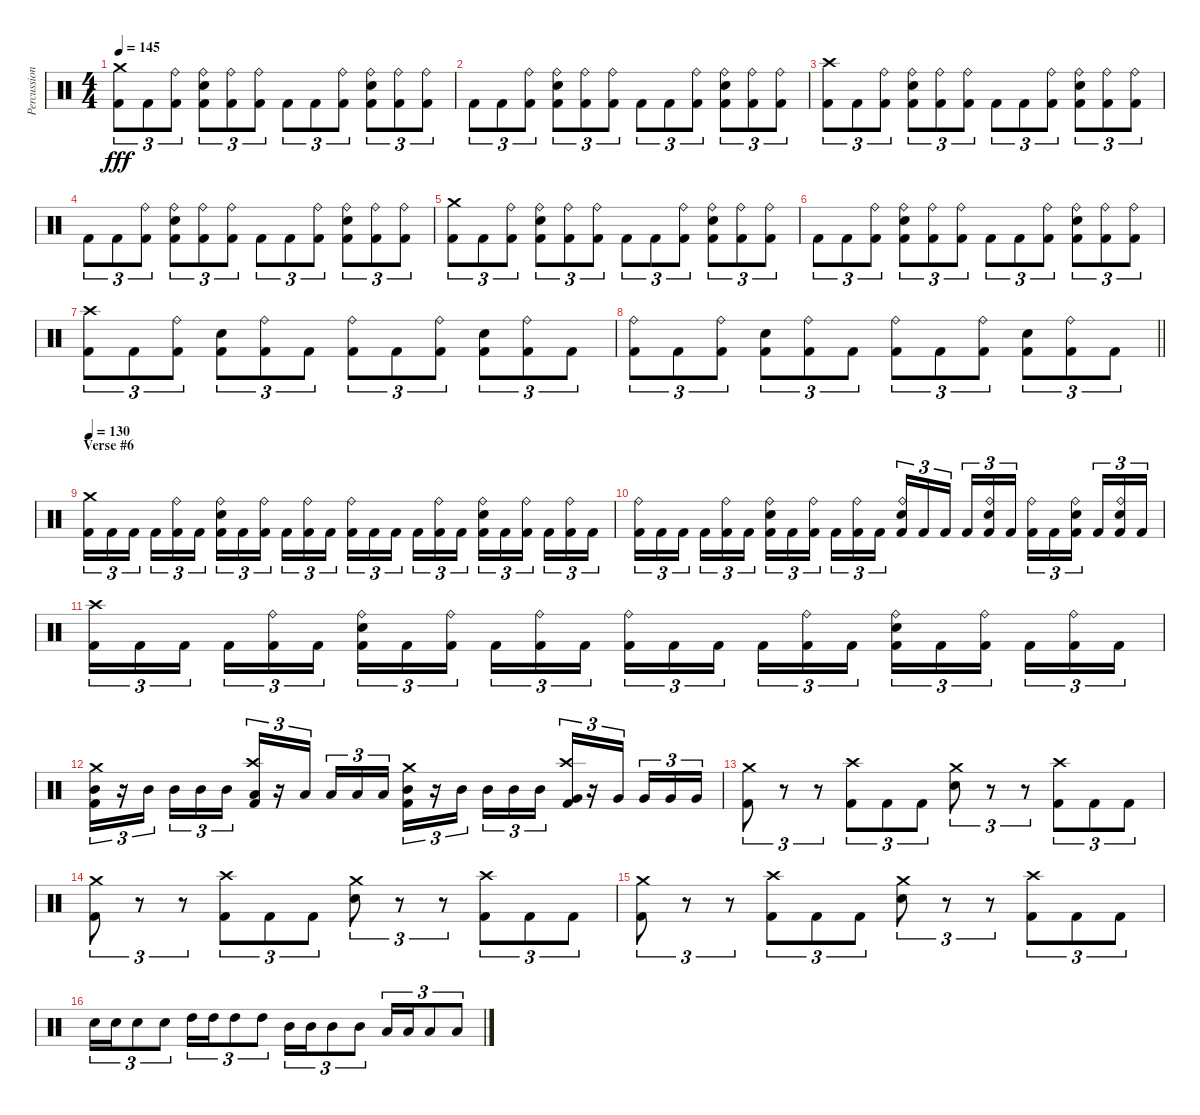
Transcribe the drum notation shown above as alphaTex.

\track ("Percussions" "Percussion") {instrument percussion}
\staff {score}
\articulation defaults
\ts (4 4)
\tempo 145
\clef neutral
\ks c
("Crash medium (hit)" "Kick (hit) 2").8{tu (3 2) dy fff} "Kick (hit) 2".8{tu (3 2)} ("Ride (bell)" "Kick (hit) 2").8{tu (3 2)} ("Ride (bell)" "Snare (hit) 2" "Kick (hit) 2").8{tu (3 2)} ("Ride (bell)" "Kick (hit) 2").8{tu (3 2)} ("Ride (bell)" "Kick (hit) 2").8{tu (3 2)} "Kick (hit) 2".8{tu (3 2)} "Kick (hit) 2".8{tu (3 2)} ("Ride (bell)" "Kick (hit) 2").8{tu (3 2)} ("Ride (bell)" "Snare (hit) 2" "Kick (hit) 2").8{tu (3 2)} ("Ride (bell)" "Kick (hit) 2").8{tu (3 2)} ("Ride (bell)" "Kick (hit) 2").8{tu (3 2)} |
"Kick (hit) 2".8{tu (3 2)} "Kick (hit) 2".8{tu (3 2)} ("Ride (bell)" "Kick (hit) 2").8{tu (3 2)} ("Ride (bell)" "Snare (hit) 2" "Kick (hit) 2").8{tu (3 2)} ("Ride (bell)" "Kick (hit) 2").8{tu (3 2)} ("Ride (bell)" "Kick (hit) 2").8{tu (3 2)} "Kick (hit) 2".8{tu (3 2)} "Kick (hit) 2".8{tu (3 2)} ("Ride (bell)" "Kick (hit) 2").8{tu (3 2)} ("Ride (bell)" "Snare (hit) 2" "Kick (hit) 2").8{tu (3 2)} ("Ride (bell)" "Kick (hit) 2").8{tu (3 2)} ("Ride (bell)" "Kick (hit) 2").8{tu (3 2)} |
("Crash high (hit)" "Kick (hit) 2").8{tu (3 2)} "Kick (hit) 2".8{tu (3 2)} ("Ride (bell)" "Kick (hit) 2").8{tu (3 2)} ("Ride (bell)" "Snare (hit) 2" "Kick (hit) 2").8{tu (3 2)} ("Ride (bell)" "Kick (hit) 2").8{tu (3 2)} ("Ride (bell)" "Kick (hit) 2").8{tu (3 2)} "Kick (hit) 2".8{tu (3 2)} "Kick (hit) 2".8{tu (3 2)} ("Ride (bell)" "Kick (hit) 2").8{tu (3 2)} ("Ride (bell)" "Snare (hit) 2" "Kick (hit) 2").8{tu (3 2)} ("Ride (bell)" "Kick (hit) 2").8{tu (3 2)} ("Ride (bell)" "Kick (hit) 2").8{tu (3 2)} |
"Kick (hit) 2".8{tu (3 2)} "Kick (hit) 2".8{tu (3 2)} ("Ride (bell)" "Kick (hit) 2").8{tu (3 2)} ("Ride (bell)" "Snare (hit) 2" "Kick (hit) 2").8{tu (3 2)} ("Ride (bell)" "Kick (hit) 2").8{tu (3 2)} ("Ride (bell)" "Kick (hit) 2").8{tu (3 2)} "Kick (hit) 2".8{tu (3 2)} "Kick (hit) 2".8{tu (3 2)} ("Ride (bell)" "Kick (hit) 2").8{tu (3 2)} ("Ride (bell)" "Snare (hit) 2" "Kick (hit) 2").8{tu (3 2)} ("Ride (bell)" "Kick (hit) 2").8{tu (3 2)} ("Ride (bell)" "Kick (hit) 2").8{tu (3 2)} |
("Crash medium (hit)" "Kick (hit) 2").8{tu (3 2)} "Kick (hit) 2".8{tu (3 2)} ("Ride (bell)" "Kick (hit) 2").8{tu (3 2)} ("Ride (bell)" "Snare (hit) 2" "Kick (hit) 2").8{tu (3 2)} ("Ride (bell)" "Kick (hit) 2").8{tu (3 2)} ("Ride (bell)" "Kick (hit) 2").8{tu (3 2)} "Kick (hit) 2".8{tu (3 2)} "Kick (hit) 2".8{tu (3 2)} ("Ride (bell)" "Kick (hit) 2").8{tu (3 2)} ("Ride (bell)" "Snare (hit) 2" "Kick (hit) 2").8{tu (3 2)} ("Ride (bell)" "Kick (hit) 2").8{tu (3 2)} ("Ride (bell)" "Kick (hit) 2").8{tu (3 2)} |
"Kick (hit) 2".8{tu (3 2)} "Kick (hit) 2".8{tu (3 2)} ("Ride (bell)" "Kick (hit) 2").8{tu (3 2)} ("Ride (bell)" "Snare (hit) 2" "Kick (hit) 2").8{tu (3 2)} ("Ride (bell)" "Kick (hit) 2").8{tu (3 2)} ("Ride (bell)" "Kick (hit) 2").8{tu (3 2)} "Kick (hit) 2".8{tu (3 2)} "Kick (hit) 2".8{tu (3 2)} ("Ride (bell)" "Kick (hit) 2").8{tu (3 2)} ("Ride (bell)" "Snare (hit) 2" "Kick (hit) 2").8{tu (3 2)} ("Ride (bell)" "Kick (hit) 2").8{tu (3 2)} ("Ride (bell)" "Kick (hit) 2").8{tu (3 2)} |
("Crash high (hit)" "Kick (hit) 2").8{tu (3 2)} "Kick (hit) 2".8{tu (3 2)} ("Ride (bell)" "Kick (hit) 2").8{tu (3 2)} ("Snare (hit) 2" "Kick (hit) 2").8{tu (3 2)} ("Ride (bell)" "Kick (hit) 2").8{tu (3 2)} "Kick (hit) 2".8{tu (3 2)} ("Ride (bell)" "Kick (hit) 2").8{tu (3 2)} "Kick (hit) 2".8{tu (3 2)} ("Ride (bell)" "Kick (hit) 2").8{tu (3 2)} ("Snare (hit) 2" "Kick (hit) 2").8{tu (3 2)} ("Ride (bell)" "Kick (hit) 2").8{tu (3 2)} "Kick (hit) 2".8{tu (3 2)} |
\barLineRight lightlight
("Ride (bell)" "Kick (hit) 2").8{tu (3 2)} "Kick (hit) 2".8{tu (3 2)} ("Ride (bell)" "Kick (hit) 2").8{tu (3 2)} ("Snare (hit) 2" "Kick (hit) 2").8{tu (3 2)} ("Ride (bell)" "Kick (hit) 2").8{tu (3 2)} "Kick (hit) 2".8{tu (3 2)} ("Ride (bell)" "Kick (hit) 2").8{tu (3 2)} "Kick (hit) 2".8{tu (3 2)} ("Ride (bell)" "Kick (hit) 2").8{tu (3 2)} ("Snare (hit) 2" "Kick (hit) 2").8{tu (3 2)} ("Ride (bell)" "Kick (hit) 2").8{tu (3 2)} "Kick (hit) 2".8{tu (3 2)} |
\section ("" "Verse #6")
\tempo 130
("Crash medium (hit)" "Kick (hit) 2").16{tu (3 2)} "Kick (hit) 2".16{tu (3 2)} "Kick (hit) 2".16{tu (3 2) beam splitsecondary} "Kick (hit) 2".16{tu (3 2)} ("Ride (bell)" "Kick (hit) 2").16{tu (3 2)} "Kick (hit) 2".16{tu (3 2)} ("Ride (bell)" "Snare (hit) 2" "Kick (hit) 2").16{tu (3 2)} "Kick (hit) 2".16{tu (3 2)} ("Ride (bell)" "Kick (hit) 2").16{tu (3 2) beam splitsecondary} "Kick (hit) 2".16{tu (3 2)} ("Ride (bell)" "Kick (hit) 2").16{tu (3 2)} "Kick (hit) 2".16{tu (3 2)} ("Ride (bell)" "Kick (hit) 2").16{tu (3 2)} "Kick (hit) 2".16{tu (3 2)} "Kick (hit) 2".16{tu (3 2) beam splitsecondary} "Kick (hit) 2".16{tu (3 2)} ("Ride (bell)" "Kick (hit) 2").16{tu (3 2)} "Kick (hit) 2".16{tu (3 2)} ("Ride (bell)" "Snare (hit) 2" "Kick (hit) 2").16{tu (3 2)} "Kick (hit) 2".16{tu (3 2)} ("Ride (bell)" "Kick (hit) 2").16{tu (3 2) beam splitsecondary} "Kick (hit) 2".16{tu (3 2)} ("Ride (bell)" "Kick (hit) 2").16{tu (3 2)} "Kick (hit) 2".16{tu (3 2)} |
("Ride (bell)" "Kick (hit) 2").16{tu (3 2)} "Kick (hit) 2".16{tu (3 2)} "Kick (hit) 2".16{tu (3 2) beam splitsecondary} "Kick (hit) 2".16{tu (3 2)} ("Ride (bell)" "Kick (hit) 2").16{tu (3 2)} "Kick (hit) 2".16{tu (3 2)} ("Ride (bell)" "Snare (hit) 2" "Kick (hit) 2").16{tu (3 2)} "Kick (hit) 2".16{tu (3 2)} ("Ride (bell)" "Kick (hit) 2").16{tu (3 2) beam splitsecondary} "Kick (hit) 2".16{tu (3 2)} ("Ride (bell)" "Kick (hit) 2").16{tu (3 2)} "Kick (hit) 2".16{tu (3 2)} ("Ride (bell)" "Snare (hit) 2" "Kick (hit) 2").16{tu (3 2)} "Kick (hit) 2".16{tu (3 2)} "Kick (hit) 2".16{tu (3 2) beam splitsecondary} "Kick (hit) 2".16{tu (3 2)} ("Ride (bell)" "Snare (hit) 2" "Kick (hit) 2").16{tu (3 2)} "Kick (hit) 2".16{tu (3 2)} ("Ride (bell)" "Kick (hit) 2").16{tu (3 2)} "Kick (hit) 2".16{tu (3 2)} ("Ride (bell)" "Snare (hit) 2" "Kick (hit) 2").16{tu (3 2) beam splitsecondary} "Kick (hit) 2".16{tu (3 2)} ("Ride (bell)" "Snare (hit) 2" "Kick (hit) 2").16{tu (3 2)} "Kick (hit) 2".16{tu (3 2)} |
("Crash high (hit)" "Kick (hit) 2").16{tu (3 2)} "Kick (hit) 2".16{tu (3 2)} "Kick (hit) 2".16{tu (3 2) beam splitsecondary} "Kick (hit) 2".16{tu (3 2)} ("Ride (bell)" "Kick (hit) 2").16{tu (3 2)} "Kick (hit) 2".16{tu (3 2)} ("Ride (bell)" "Snare (hit) 2" "Kick (hit) 2").16{tu (3 2)} "Kick (hit) 2".16{tu (3 2)} ("Ride (bell)" "Kick (hit) 2").16{tu (3 2) beam splitsecondary} "Kick (hit) 2".16{tu (3 2)} ("Ride (bell)" "Kick (hit) 2").16{tu (3 2)} "Kick (hit) 2".16{tu (3 2)} ("Ride (bell)" "Kick (hit) 2").16{tu (3 2)} "Kick (hit) 2".16{tu (3 2)} "Kick (hit) 2".16{tu (3 2) beam splitsecondary} "Kick (hit) 2".16{tu (3 2)} ("Ride (bell)" "Kick (hit) 2").16{tu (3 2)} "Kick (hit) 2".16{tu (3 2)} ("Ride (bell)" "Snare (hit) 2" "Kick (hit) 2").16{tu (3 2)} "Kick (hit) 2".16{tu (3 2)} ("Ride (bell)" "Kick (hit) 2").16{tu (3 2) beam splitsecondary} "Kick (hit) 2".16{tu (3 2)} ("Ride (bell)" "Kick (hit) 2").16{tu (3 2)} "Kick (hit) 2".16{tu (3 2)} |
("Crash medium (hit)" "Mid Tom (hit)" "Kick (hit) 2").16{tu (3 2)} r.16{tu (3 2)} "Mid Tom (hit)".16{tu (3 2) beam splitsecondary} "Mid Tom (hit)".16{tu (3 2)} "Mid Tom (hit)".16{tu (3 2)} "Mid Tom (hit)".16{tu (3 2)} ("Crash high (hit)" "Low Tom (hit)" "Kick (hit) 2").16{tu (3 2)} r.16{tu (3 2)} "Low Tom (hit)".16{tu (3 2) beam splitsecondary} "Low Tom (hit)".16{tu (3 2)} "Low Tom (hit)".16{tu (3 2)} "Low Tom (hit)".16{tu (3 2)} ("Crash medium (hit)" "Mid Tom (hit)" "Kick (hit) 2").16{tu (3 2)} r.16{tu (3 2)} "Mid Tom (hit)".16{tu (3 2) beam splitsecondary} "Mid Tom (hit)".16{tu (3 2)} "Mid Tom (hit)".16{tu (3 2)} "Mid Tom (hit)".16{tu (3 2)} ("Crash high (hit)" "Very Low Tom (hit)" "Kick (hit) 2").16{tu (3 2)} r.16{tu (3 2)} "Very Low Tom (hit)".16{tu (3 2) beam splitsecondary} "Very Low Tom (hit)".16{tu (3 2)} "Very Low Tom (hit)".16{tu (3 2)} "Very Low Tom (hit)".16{tu (3 2)} |
("Crash medium (hit)" "Kick (hit) 2").8{tu (3 2)} r.8{tu (3 2)} r.8{tu (3 2)} ("Crash high (hit)" "Kick (hit) 2").8{tu (3 2)} "Kick (hit) 2".8{tu (3 2)} "Kick (hit) 2".8{tu (3 2)} ("Crash medium (hit)" "Snare (hit) 2").8{tu (3 2)} r.8{tu (3 2)} r.8{tu (3 2)} ("Crash high (hit)" "Kick (hit) 2").8{tu (3 2)} "Kick (hit) 2".8{tu (3 2)} "Kick (hit) 2".8{tu (3 2)} |
("Crash medium (hit)" "Kick (hit) 2").8{tu (3 2)} r.8{tu (3 2)} r.8{tu (3 2)} ("Crash high (hit)" "Kick (hit) 2").8{tu (3 2)} "Kick (hit) 2".8{tu (3 2)} "Kick (hit) 2".8{tu (3 2)} ("Crash medium (hit)" "Snare (hit) 2").8{tu (3 2)} r.8{tu (3 2)} r.8{tu (3 2)} ("Crash high (hit)" "Kick (hit) 2").8{tu (3 2)} "Kick (hit) 2".8{tu (3 2)} "Kick (hit) 2".8{tu (3 2)} |
("Crash medium (hit)" "Kick (hit) 2").8{tu (3 2)} r.8{tu (3 2)} r.8{tu (3 2)} ("Crash high (hit)" "Kick (hit) 2").8{tu (3 2)} "Kick (hit) 2".8{tu (3 2)} "Kick (hit) 2".8{tu (3 2)} ("Crash medium (hit)" "Snare (hit) 2").8{tu (3 2)} r.8{tu (3 2)} r.8{tu (3 2)} ("Crash high (hit)" "Kick (hit) 2").8{tu (3 2)} "Kick (hit) 2".8{tu (3 2)} "Kick (hit) 2".8{tu (3 2)} |
"Snare (hit) 2".16{tu (3 2)} "Snare (hit) 2".16{tu (3 2)} "Snare (hit) 2".8{tu (3 2)} "Snare (hit) 2".8{tu (3 2)} "High Tom (hit)".16{tu (3 2)} "High Tom (hit)".16{tu (3 2)} "High Tom (hit)".8{tu (3 2)} "High Tom (hit)".8{tu (3 2)} "Mid Tom (hit)".16{tu (3 2)} "Mid Tom (hit)".16{tu (3 2)} "Mid Tom (hit)".8{tu (3 2)} "Mid Tom (hit)".8{tu (3 2)} "Low Tom (hit)".16{tu (3 2)} "Low Tom (hit)".16{tu (3 2)} "Low Tom (hit)".8{tu (3 2)} "Low Tom (hit)".8{tu (3 2)}
